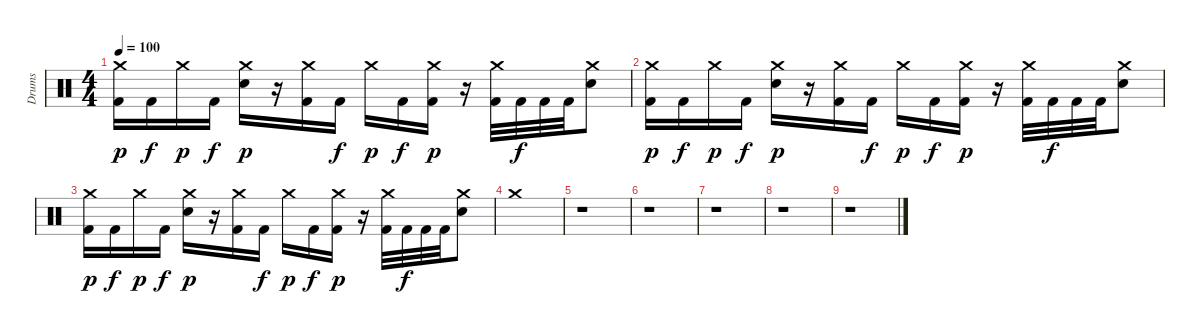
\track ("Drums" "Drums") {instrument percussion}
\staff {score}
\articulation defaults
\ts (4 4)
\tempo 100
\clef neutral
\ks c
("Crash medium (hit)" "Kick (hit) 2").16{dy p} "Kick (hit) 2".16{dy f} "Crash medium (hit)".16{dy p} "Kick (hit) 2".16{dy f} ("Crash medium (hit)" "Snare (hit) 2").16{dy p} r.16 ("Crash medium (hit)" "Kick (hit) 2").16 "Kick (hit) 2".16{dy f} "Crash medium (hit)".16{dy p} "Kick (hit) 2".16{dy f} ("Crash medium (hit)" "Kick (hit) 2").16{dy p} r.16 ("Crash medium (hit)" "Kick (hit) 2").32 "Kick (hit) 2".32{dy f} "Kick (hit) 2".32 "Kick (hit) 2".32 ("Crash medium (hit)" "Snare (hit) 2").8 |
("Crash medium (hit)" "Kick (hit) 2").16{dy p} "Kick (hit) 2".16{dy f} "Crash medium (hit)".16{dy p} "Kick (hit) 2".16{dy f} ("Crash medium (hit)" "Snare (hit) 2").16{dy p} r.16 ("Crash medium (hit)" "Kick (hit) 2").16 "Kick (hit) 2".16{dy f} "Crash medium (hit)".16{dy p} "Kick (hit) 2".16{dy f} ("Crash medium (hit)" "Kick (hit) 2").16{dy p} r.16 ("Crash medium (hit)" "Kick (hit) 2").32 "Kick (hit) 2".32{dy f} "Kick (hit) 2".32 "Kick (hit) 2".32 ("Crash medium (hit)" "Snare (hit) 2").8 |
("Crash medium (hit)" "Kick (hit) 2").16{dy p} "Kick (hit) 2".16{dy f} "Crash medium (hit)".16{dy p} "Kick (hit) 2".16{dy f} ("Crash medium (hit)" "Snare (hit) 2").16{dy p} r.16 ("Crash medium (hit)" "Kick (hit) 2").16 "Kick (hit) 2".16{dy f} "Crash medium (hit)".16{dy p} "Kick (hit) 2".16{dy f} ("Crash medium (hit)" "Kick (hit) 2").16{dy p} r.16 ("Crash medium (hit)" "Kick (hit) 2").32 "Kick (hit) 2".32{dy f} "Kick (hit) 2".32 "Kick (hit) 2".32 ("Crash medium (hit)" "Snare (hit) 2").8 |
"Crash medium (hit)".1 |
r.1 |
r.1 |
r.1 |
r.1 |
r.1
